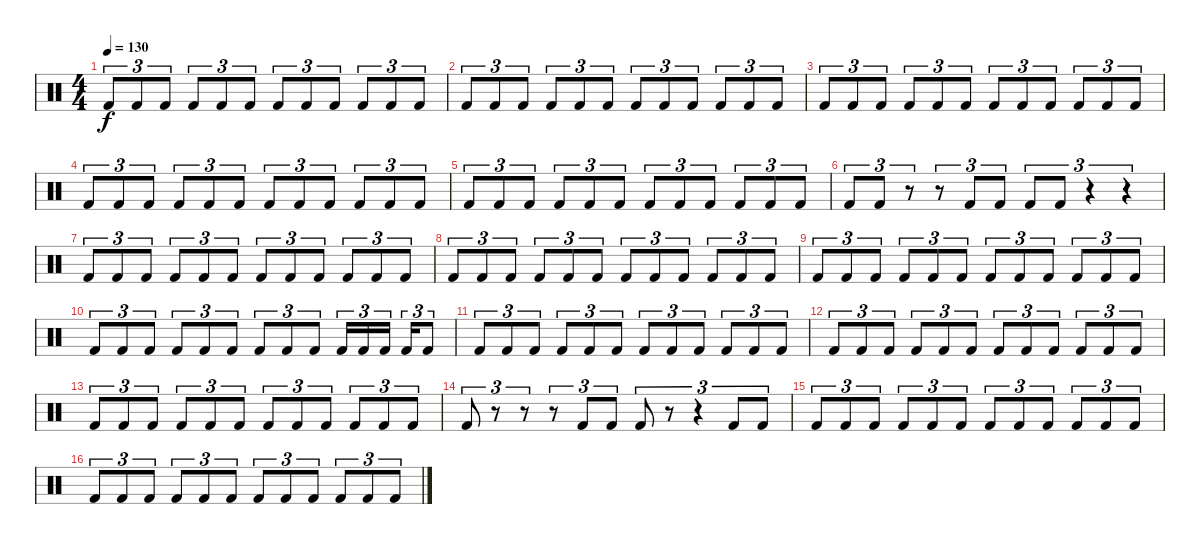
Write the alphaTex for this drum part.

\track "" {instrument percussion}
\staff {score}
\articulation defaults
\ts (4 4)
\tempo 130
\clef neutral
\ks c "Kick (hit) 2".8{tu (3 2) dy f} "Kick (hit) 2".8{tu (3 2)} "Kick (hit) 2".8{tu (3 2)} "Kick (hit) 2".8{tu (3 2)} "Kick (hit) 2".8{tu (3 2)} "Kick (hit) 2".8{tu (3 2)} "Kick (hit) 2".8{tu (3 2)} "Kick (hit) 2".8{tu (3 2)} "Kick (hit) 2".8{tu (3 2)} "Kick (hit) 2".8{tu (3 2)} "Kick (hit) 2".8{tu (3 2)} "Kick (hit) 2".8{tu (3 2)}
|
"Kick (hit) 2".8{tu (3 2)} "Kick (hit) 2".8{tu (3 2)} "Kick (hit) 2".8{tu (3 2)} "Kick (hit) 2".8{tu (3 2)} "Kick (hit) 2".8{tu (3 2)} "Kick (hit) 2".8{tu (3 2)} "Kick (hit) 2".8{tu (3 2)} "Kick (hit) 2".8{tu (3 2)} "Kick (hit) 2".8{tu (3 2)} "Kick (hit) 2".8{tu (3 2)} "Kick (hit) 2".8{tu (3 2)} "Kick (hit) 2".8{tu (3 2)} |
"Kick (hit) 2".8{tu (3 2)} "Kick (hit) 2".8{tu (3 2)} "Kick (hit) 2".8{tu (3 2)} "Kick (hit) 2".8{tu (3 2)} "Kick (hit) 2".8{tu (3 2)} "Kick (hit) 2".8{tu (3 2)} "Kick (hit) 2".8{tu (3 2)} "Kick (hit) 2".8{tu (3 2)} "Kick (hit) 2".8{tu (3 2)} "Kick (hit) 2".8{tu (3 2)} "Kick (hit) 2".8{tu (3 2)} "Kick (hit) 2".8{tu (3 2)} |
"Kick (hit) 2".8{tu (3 2)} "Kick (hit) 2".8{tu (3 2)} "Kick (hit) 2".8{tu (3 2)} "Kick (hit) 2".8{tu (3 2)} "Kick (hit) 2".8{tu (3 2)} "Kick (hit) 2".8{tu (3 2)} "Kick (hit) 2".8{tu (3 2)} "Kick (hit) 2".8{tu (3 2)} "Kick (hit) 2".8{tu (3 2)} "Kick (hit) 2".8{tu (3 2)} "Kick (hit) 2".8{tu (3 2)} "Kick (hit) 2".8{tu (3 2)} |
"Kick (hit) 2".8{tu (3 2)} "Kick (hit) 2".8{tu (3 2)} "Kick (hit) 2".8{tu (3 2)} "Kick (hit) 2".8{tu (3 2)} "Kick (hit) 2".8{tu (3 2)} "Kick (hit) 2".8{tu (3 2)} "Kick (hit) 2".8{tu (3 2)} "Kick (hit) 2".8{tu (3 2)} "Kick (hit) 2".8{tu (3 2)} "Kick (hit) 2".8{tu (3 2)} "Kick (hit) 2".8{tu (3 2)} "Kick (hit) 2".8{tu (3 2)} |
"Kick (hit) 2".8{tu (3 2)} "Kick (hit) 2".8{tu (3 2)} r.8{tu (3 2)} r.8{tu (3 2)} "Kick (hit) 2".8{tu (3 2)} "Kick (hit) 2".8{tu (3 2)} "Kick (hit) 2".8{tu (3 2)} "Kick (hit) 2".8{tu (3 2)} r.4{tu (3 2)} r.4{tu (3 2)} |
"Kick (hit) 2".8{tu (3 2)} "Kick (hit) 2".8{tu (3 2)} "Kick (hit) 2".8{tu (3 2)} "Kick (hit) 2".8{tu (3 2)} "Kick (hit) 2".8{tu (3 2)} "Kick (hit) 2".8{tu (3 2)} "Kick (hit) 2".8{tu (3 2)} "Kick (hit) 2".8{tu (3 2)} "Kick (hit) 2".8{tu (3 2)} "Kick (hit) 2".8{tu (3 2)} "Kick (hit) 2".8{tu (3 2)} "Kick (hit) 2".8{tu (3 2)} |
"Kick (hit) 2".8{tu (3 2)} "Kick (hit) 2".8{tu (3 2)} "Kick (hit) 2".8{tu (3 2)} "Kick (hit) 2".8{tu (3 2)} "Kick (hit) 2".8{tu (3 2)} "Kick (hit) 2".8{tu (3 2)} "Kick (hit) 2".8{tu (3 2)} "Kick (hit) 2".8{tu (3 2)} "Kick (hit) 2".8{tu (3 2)} "Kick (hit) 2".8{tu (3 2)} "Kick (hit) 2".8{tu (3 2)} "Kick (hit) 2".8{tu (3 2)} |
"Kick (hit) 2".8{tu (3 2)} "Kick (hit) 2".8{tu (3 2)} "Kick (hit) 2".8{tu (3 2)} "Kick (hit) 2".8{tu (3 2)} "Kick (hit) 2".8{tu (3 2)} "Kick (hit) 2".8{tu (3 2)} "Kick (hit) 2".8{tu (3 2)} "Kick (hit) 2".8{tu (3 2)} "Kick (hit) 2".8{tu (3 2)} "Kick (hit) 2".8{tu (3 2)} "Kick (hit) 2".8{tu (3 2)} "Kick (hit) 2".8{tu (3 2)} |
"Kick (hit) 2".8{tu (3 2)} "Kick (hit) 2".8{tu (3 2)} "Kick (hit) 2".8{tu (3 2)} "Kick (hit) 2".8{tu (3 2)} "Kick (hit) 2".8{tu (3 2)} "Kick (hit) 2".8{tu (3 2)} "Kick (hit) 2".8{tu (3 2)} "Kick (hit) 2".8{tu (3 2)} "Kick (hit) 2".8{tu (3 2)} "Kick (hit) 2".16{tu (3 2)} "Kick (hit) 2".16{tu (3 2)} "Kick (hit) 2".16{tu (3 2)} "Kick (hit) 2".16{tu (3 2)} "Kick (hit) 2".8{tu (3 2)} |
"Kick (hit) 2".8{tu (3 2)} "Kick (hit) 2".8{tu (3 2)} "Kick (hit) 2".8{tu (3 2)} "Kick (hit) 2".8{tu (3 2)} "Kick (hit) 2".8{tu (3 2)} "Kick (hit) 2".8{tu (3 2)} "Kick (hit) 2".8{tu (3 2)} "Kick (hit) 2".8{tu (3 2)} "Kick (hit) 2".8{tu (3 2)} "Kick (hit) 2".8{tu (3 2)} "Kick (hit) 2".8{tu (3 2)} "Kick (hit) 2".8{tu (3 2)} |
"Kick (hit) 2".8{tu (3 2)} "Kick (hit) 2".8{tu (3 2)} "Kick (hit) 2".8{tu (3 2)} "Kick (hit) 2".8{tu (3 2)} "Kick (hit) 2".8{tu (3 2)} "Kick (hit) 2".8{tu (3 2)} "Kick (hit) 2".8{tu (3 2)} "Kick (hit) 2".8{tu (3 2)} "Kick (hit) 2".8{tu (3 2)} "Kick (hit) 2".8{tu (3 2)} "Kick (hit) 2".8{tu (3 2)} "Kick (hit) 2".8{tu (3 2)} |
"Kick (hit) 2".8{tu (3 2)} "Kick (hit) 2".8{tu (3 2)} "Kick (hit) 2".8{tu (3 2)} "Kick (hit) 2".8{tu (3 2)} "Kick (hit) 2".8{tu (3 2)} "Kick (hit) 2".8{tu (3 2)} "Kick (hit) 2".8{tu (3 2)} "Kick (hit) 2".8{tu (3 2)} "Kick (hit) 2".8{tu (3 2)} "Kick (hit) 2".8{tu (3 2)} "Kick (hit) 2".8{tu (3 2)} "Kick (hit) 2".8{tu (3 2)} |
"Kick (hit) 2".8{tu (3 2)} r.8{tu (3 2)} r.8{tu (3 2)} r.8{tu (3 2)} "Kick (hit) 2".8{tu (3 2)} "Kick (hit) 2".8{tu (3 2)} "Kick (hit) 2".8{tu (3 2)} r.8{tu (3 2)} r.4{tu (3 2)} "Kick (hit) 2".8{tu (3 2)} "Kick (hit) 2".8{tu (3 2)} |
"Kick (hit) 2".8{tu (3 2)} "Kick (hit) 2".8{tu (3 2)} "Kick (hit) 2".8{tu (3 2)} "Kick (hit) 2".8{tu (3 2)} "Kick (hit) 2".8{tu (3 2)} "Kick (hit) 2".8{tu (3 2)} "Kick (hit) 2".8{tu (3 2)} "Kick (hit) 2".8{tu (3 2)} "Kick (hit) 2".8{tu (3 2)} "Kick (hit) 2".8{tu (3 2)} "Kick (hit) 2".8{tu (3 2)} "Kick (hit) 2".8{tu (3 2)} |
"Kick (hit) 2".8{tu (3 2)} "Kick (hit) 2".8{tu (3 2)} "Kick (hit) 2".8{tu (3 2)} "Kick (hit) 2".8{tu (3 2)} "Kick (hit) 2".8{tu (3 2)} "Kick (hit) 2".8{tu (3 2)} "Kick (hit) 2".8{tu (3 2)} "Kick (hit) 2".8{tu (3 2)} "Kick (hit) 2".8{tu (3 2)} "Kick (hit) 2".8{tu (3 2)} "Kick (hit) 2".8{tu (3 2)} "Kick (hit) 2".8{tu (3 2)}
